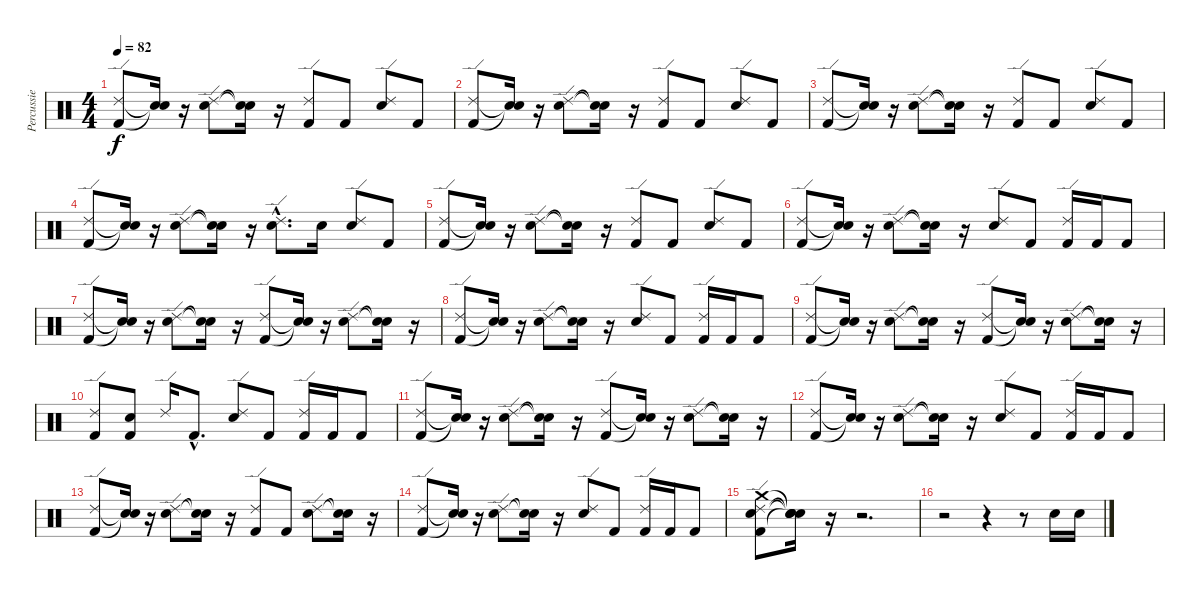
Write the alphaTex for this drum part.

\track ("Percussie" "Percussie") {instrument percussion}
\staff {score}
\articulation defaults
\ts (4 4)
\tempo 82
\clef neutral
\ks c
("Kick (hit) 2" "Ride (edge) 2").8{dy f} ("Snare (hit)"{t} "Snare (hit)"{t}).16 r.16 ("Snare (hit) 2" "Ride (edge) 2").8 ("Snare (hit)"{t} "Snare (hit)"{t}).16 r.16 ("Kick (hit) 2" "Ride (edge) 2").8 "Kick (hit) 2".8 ("Snare (hit) 2" "Ride (edge) 2").8 "Kick (hit) 2".8 |
("Kick (hit) 2" "Ride (edge) 2").8 ("Snare (hit)"{t} "Snare (hit)"{t}).16 r.16 ("Snare (hit) 2" "Ride (edge) 2").8 ("Snare (hit)"{t} "Snare (hit)"{t}).16 r.16 ("Kick (hit) 2" "Ride (edge) 2").8 "Kick (hit) 2".8 ("Snare (hit) 2" "Ride (edge) 2").8 "Kick (hit) 2".8 |
("Kick (hit) 2" "Ride (edge) 2").8 ("Snare (hit)"{t} "Snare (hit)"{t}).16 r.16 ("Snare (hit) 2" "Ride (edge) 2").8 ("Snare (hit)"{t} "Snare (hit)"{t}).16 r.16 ("Kick (hit) 2" "Ride (edge) 2").8 "Kick (hit) 2".8 ("Snare (hit) 2" "Ride (edge) 2").8 "Kick (hit) 2".8 |
("Kick (hit) 2" "Ride (edge) 2").8 ("Snare (hit)"{t} "Snare (hit)"{t}).16 r.16 ("Snare (hit) 2" "Ride (edge) 2").8 ("Snare (hit)"{t} "Snare (hit)"{t}).16 r.16 ("Snare (hit) 2"{hac} "Ride (edge) 2"{hac}).8{d} "Snare (hit) 2".16 ("Snare (hit) 2" "Ride (edge) 2").8 "Kick (hit) 2".8 |
("Kick (hit) 2" "Ride (edge) 2").8 ("Snare (hit)"{t} "Snare (hit)"{t}).16 r.16 ("Snare (hit) 2" "Ride (edge) 2").8 ("Snare (hit)"{t} "Snare (hit)"{t}).16 r.16 ("Kick (hit) 2" "Ride (edge) 2").8 "Kick (hit) 2".8 ("Snare (hit) 2" "Ride (edge) 2").8 "Kick (hit) 2".8 |
("Kick (hit) 2" "Ride (edge) 2").8 ("Snare (hit)"{t} "Snare (hit)"{t}).16 r.16 ("Snare (hit) 2" "Ride (edge) 2").8 ("Snare (hit)"{t} "Snare (hit)"{t}).16 r.16 ("Snare (hit) 2" "Ride (edge) 2").8 "Kick (hit) 2".8 ("Kick (hit) 2" "Ride (edge) 2").16 "Kick (hit) 2".16 "Kick (hit) 2".8 |
("Kick (hit) 2" "Ride (edge) 2").8 ("Snare (hit)"{t} "Snare (hit)"{t}).16 r.16 ("Snare (hit) 2" "Ride (edge) 2").8 ("Snare (hit)"{t} "Snare (hit)"{t}).16 r.16 ("Kick (hit) 2" "Ride (edge) 2").8 ("Snare (hit)"{t} "Snare (hit)"{t}).16 r.16 ("Snare (hit) 2" "Ride (edge) 2").8 ("Snare (hit)"{t} "Snare (hit)"{t}).16 r.16 |
("Kick (hit) 2" "Ride (edge) 2").8 ("Snare (hit)"{t} "Snare (hit)"{t}).16 r.16 ("Snare (hit) 2" "Ride (edge) 2").8 ("Snare (hit)"{t} "Snare (hit)"{t}).16 r.16 ("Snare (hit) 2" "Ride (edge) 2").8 "Kick (hit) 2".8 ("Kick (hit) 2" "Ride (edge) 2").16 "Kick (hit) 2".16 "Kick (hit) 2".8 |
("Kick (hit) 2" "Ride (edge) 2").8 ("Snare (hit)"{t} "Snare (hit)"{t}).16 r.16 ("Snare (hit) 2" "Ride (edge) 2").8 ("Snare (hit)"{t} "Snare (hit)"{t}).16 r.16 ("Kick (hit) 2" "Ride (edge) 2").8 ("Snare (hit)"{t} "Snare (hit)"{t}).16 r.16 ("Snare (hit) 2" "Ride (edge) 2").8 ("Snare (hit)"{t} "Snare (hit)"{t}).16 r.16 |
("Kick (hit) 2" "Ride (edge) 2").8 ("Kick (hit) 2" "Snare (hit) 2").8 "Ride (edge) 2".16 "Kick (hit) 2"{hac}.8{d} ("Snare (hit) 2" "Ride (edge) 2").8 "Kick (hit) 2".8 ("Kick (hit) 2" "Ride (edge) 2").16 "Kick (hit) 2".16 "Kick (hit) 2".8 |
("Kick (hit) 2" "Ride (edge) 2").8 ("Snare (hit)"{t} "Snare (hit)"{t}).16 r.16 ("Snare (hit) 2" "Ride (edge) 2").8 ("Snare (hit)"{t} "Snare (hit)"{t}).16 r.16 ("Kick (hit) 2" "Ride (edge) 2").8 ("Snare (hit)"{t} "Snare (hit)"{t}).16 r.16 ("Snare (hit) 2" "Ride (edge) 2").8 ("Snare (hit)"{t} "Snare (hit)"{t}).16 r.16 |
("Kick (hit) 2" "Ride (edge) 2").8 ("Snare (hit)"{t} "Snare (hit)"{t}).16 r.16 ("Snare (hit) 2" "Ride (edge) 2").8 ("Snare (hit)"{t} "Snare (hit)"{t}).16 r.16 ("Snare (hit) 2" "Ride (edge) 2").8 "Kick (hit) 2".8 ("Kick (hit) 2" "Ride (edge) 2").16 "Kick (hit) 2".16 "Kick (hit) 2".8 |
("Kick (hit) 2" "Ride (edge) 2").8 ("Snare (hit)"{t} "Snare (hit)"{t}).16 r.16 ("Snare (hit) 2" "Ride (edge) 2").8 ("Snare (hit)"{t} "Snare (hit)"{t}).16 r.16 ("Kick (hit) 2" "Ride (edge) 2").8 "Kick (hit) 2".8 ("Snare (hit) 2" "Ride (edge) 2").8 ("Snare (hit)"{t} "Snare (hit)"{t}).16 r.16 |
("Kick (hit) 2" "Ride (edge) 2").8 ("Snare (hit)"{t} "Snare (hit)"{t}).16 r.16 ("Snare (hit) 2" "Ride (edge) 2").8 ("Snare (hit)"{t} "Snare (hit)"{t}).16 r.16 ("Snare (hit) 2" "Ride (edge) 2").8 "Kick (hit) 2".8 ("Kick (hit) 2" "Ride (edge) 2").16 "Kick (hit) 2".16 "Kick (hit) 2".8 |
("Kick (hit) 2" "Snare (hit) 2" "Crash medium (hit)" "Ride (edge) 2").8 ("Snare (hit)"{t} "Snare (hit)"{t} "Snare (hit)"{t} "Snare (hit)"{t}).16 r.16 r.2{d} |
r.2 r.4 r.8 "Electric Snare (hit)".16 "Electric Snare (hit)".16
